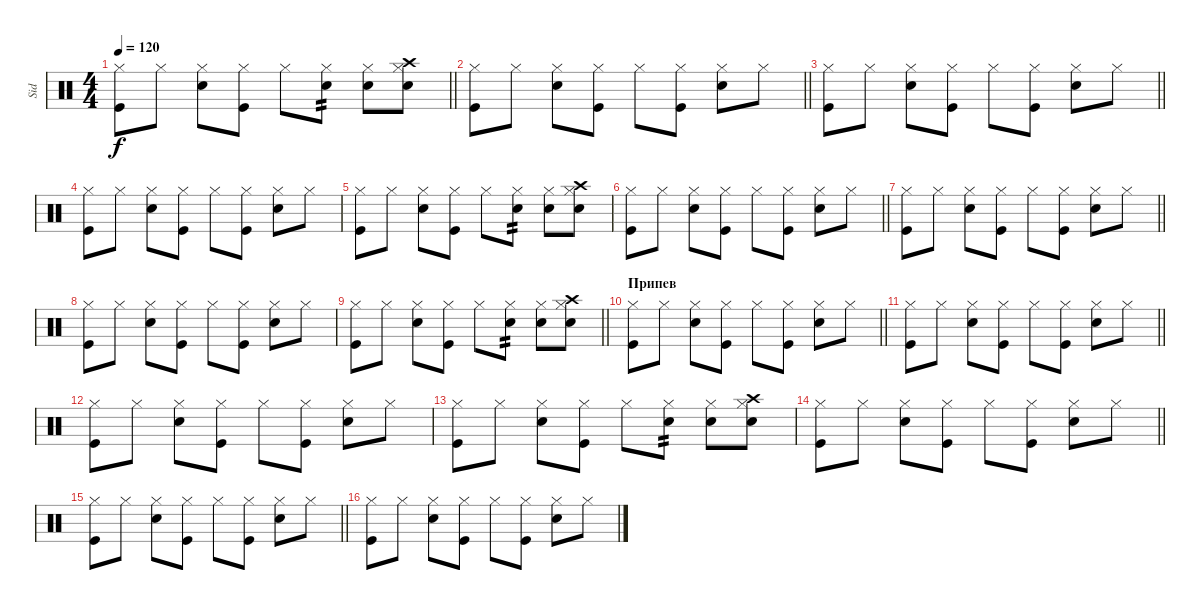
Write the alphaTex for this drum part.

\track ("Sid" "Sid") {instrument percussion}
\staff {score}
\articulation defaults
\ts (4 4)
\tempo 120
\clef neutral
\barLineRight lightlight
\ks c
("Kick (hit)" "Hi-Hat (closed)").8{dy f} "Hi-Hat (closed)".8 ("Electric Snare (hit)" "Hi-Hat (closed)").8 ("Kick (hit)" "Hi-Hat (closed)").8 "Hi-Hat (closed)".8 ("Snare (hit) 2" "Hi-Hat (closed)").8{tp 2} ("Electric Snare (hit)" "Hi-Hat (closed)").8 ("Snare (hit) 2" "Crash high (hit)" "Hi-Hat (closed)").8 |
\barLineRight lightlight
("Kick (hit)" "Hi-Hat (closed)").8 "Hi-Hat (closed)".8 ("Electric Snare (hit)" "Hi-Hat (closed)").8 ("Kick (hit)" "Hi-Hat (closed)").8 "Hi-Hat (closed)".8 ("Kick (hit)" "Hi-Hat (closed)").8 ("Electric Snare (hit)" "Hi-Hat (closed)").8 "Hi-Hat (closed)".8 |
\barLineRight lightlight
("Kick (hit)" "Hi-Hat (closed)").8 "Hi-Hat (closed)".8 ("Electric Snare (hit)" "Hi-Hat (closed)").8 ("Kick (hit)" "Hi-Hat (closed)").8 "Hi-Hat (closed)".8 ("Kick (hit)" "Hi-Hat (closed)").8 ("Electric Snare (hit)" "Hi-Hat (closed)").8 "Hi-Hat (closed)".8 |
("Kick (hit)" "Hi-Hat (closed)").8 "Hi-Hat (closed)".8 ("Electric Snare (hit)" "Hi-Hat (closed)").8 ("Kick (hit)" "Hi-Hat (closed)").8 "Hi-Hat (closed)".8 ("Kick (hit)" "Hi-Hat (closed)").8 ("Electric Snare (hit)" "Hi-Hat (closed)").8 "Hi-Hat (closed)".8 |
("Kick (hit)" "Hi-Hat (closed)").8 "Hi-Hat (closed)".8 ("Electric Snare (hit)" "Hi-Hat (closed)").8 ("Kick (hit)" "Hi-Hat (closed)").8 "Hi-Hat (closed)".8 ("Snare (hit) 2" "Hi-Hat (closed)").8{tp 2} ("Electric Snare (hit)" "Hi-Hat (closed)").8 ("Snare (hit) 2" "Crash high (hit)" "Hi-Hat (closed)").8 |
\barLineRight lightlight
("Kick (hit)" "Hi-Hat (closed)").8 "Hi-Hat (closed)".8 ("Electric Snare (hit)" "Hi-Hat (closed)").8 ("Kick (hit)" "Hi-Hat (closed)").8 "Hi-Hat (closed)".8 ("Kick (hit)" "Hi-Hat (closed)").8 ("Electric Snare (hit)" "Hi-Hat (closed)").8 "Hi-Hat (closed)".8 |
\barLineRight lightlight
("Kick (hit)" "Hi-Hat (closed)").8 "Hi-Hat (closed)".8 ("Electric Snare (hit)" "Hi-Hat (closed)").8 ("Kick (hit)" "Hi-Hat (closed)").8 "Hi-Hat (closed)".8 ("Kick (hit)" "Hi-Hat (closed)").8 ("Electric Snare (hit)" "Hi-Hat (closed)").8 "Hi-Hat (closed)".8 |
("Kick (hit)" "Hi-Hat (closed)").8 "Hi-Hat (closed)".8 ("Electric Snare (hit)" "Hi-Hat (closed)").8 ("Kick (hit)" "Hi-Hat (closed)").8 "Hi-Hat (closed)".8 ("Kick (hit)" "Hi-Hat (closed)").8 ("Electric Snare (hit)" "Hi-Hat (closed)").8 "Hi-Hat (closed)".8 |
\barLineRight lightlight
("Kick (hit)" "Hi-Hat (closed)").8 "Hi-Hat (closed)".8 ("Electric Snare (hit)" "Hi-Hat (closed)").8 ("Kick (hit)" "Hi-Hat (closed)").8 "Hi-Hat (closed)".8 ("Snare (hit) 2" "Hi-Hat (closed)").8{tp 2} ("Electric Snare (hit)" "Hi-Hat (closed)").8 ("Snare (hit) 2" "Crash high (hit)" "Hi-Hat (closed)").8 |
\section ("" "Припев")
\barLineRight lightlight
("Kick (hit)" "Hi-Hat (closed)").8 "Hi-Hat (closed)".8 ("Electric Snare (hit)" "Hi-Hat (closed)").8 ("Kick (hit)" "Hi-Hat (closed)").8 "Hi-Hat (closed)".8 ("Kick (hit)" "Hi-Hat (closed)").8 ("Electric Snare (hit)" "Hi-Hat (closed)").8 "Hi-Hat (closed)".8 |
\barLineRight lightlight
("Kick (hit)" "Hi-Hat (closed)").8 "Hi-Hat (closed)".8 ("Electric Snare (hit)" "Hi-Hat (closed)").8 ("Kick (hit)" "Hi-Hat (closed)").8 "Hi-Hat (closed)".8 ("Kick (hit)" "Hi-Hat (closed)").8 ("Electric Snare (hit)" "Hi-Hat (closed)").8 "Hi-Hat (closed)".8 |
("Kick (hit)" "Hi-Hat (closed)").8 "Hi-Hat (closed)".8 ("Electric Snare (hit)" "Hi-Hat (closed)").8 ("Kick (hit)" "Hi-Hat (closed)").8 "Hi-Hat (closed)".8 ("Kick (hit)" "Hi-Hat (closed)").8 ("Electric Snare (hit)" "Hi-Hat (closed)").8 "Hi-Hat (closed)".8 |
("Kick (hit)" "Hi-Hat (closed)").8 "Hi-Hat (closed)".8 ("Electric Snare (hit)" "Hi-Hat (closed)").8 ("Kick (hit)" "Hi-Hat (closed)").8 "Hi-Hat (closed)".8 ("Snare (hit) 2" "Hi-Hat (closed)").8{tp 2} ("Electric Snare (hit)" "Hi-Hat (closed)").8 ("Snare (hit) 2" "Crash high (hit)" "Hi-Hat (closed)").8 |
\barLineRight lightlight
("Kick (hit)" "Hi-Hat (closed)").8 "Hi-Hat (closed)".8 ("Electric Snare (hit)" "Hi-Hat (closed)").8 ("Kick (hit)" "Hi-Hat (closed)").8 "Hi-Hat (closed)".8 ("Kick (hit)" "Hi-Hat (closed)").8 ("Electric Snare (hit)" "Hi-Hat (closed)").8 "Hi-Hat (closed)".8 |
\barLineRight lightlight
("Kick (hit)" "Hi-Hat (closed)").8 "Hi-Hat (closed)".8 ("Electric Snare (hit)" "Hi-Hat (closed)").8 ("Kick (hit)" "Hi-Hat (closed)").8 "Hi-Hat (closed)".8 ("Kick (hit)" "Hi-Hat (closed)").8 ("Electric Snare (hit)" "Hi-Hat (closed)").8 "Hi-Hat (closed)".8 |
("Kick (hit)" "Hi-Hat (closed)").8 "Hi-Hat (closed)".8 ("Electric Snare (hit)" "Hi-Hat (closed)").8 ("Kick (hit)" "Hi-Hat (closed)").8 "Hi-Hat (closed)".8 ("Kick (hit)" "Hi-Hat (closed)").8 ("Electric Snare (hit)" "Hi-Hat (closed)").8 "Hi-Hat (closed)".8
